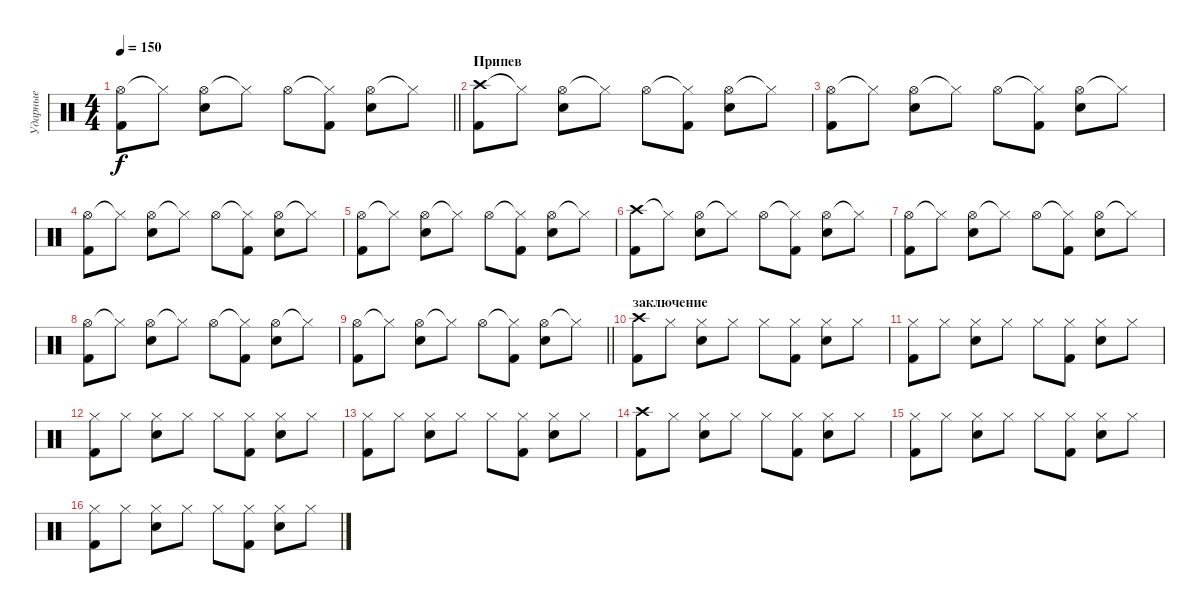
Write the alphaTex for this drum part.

\track ("Ударные" "Ударные") {instrument percussion}
\staff {score}
\articulation defaults
\ts (4 4)
\tempo 150
\clef neutral
\barLineRight lightlight
\ks c
("Hi-Hat (open)" "Kick (hit) 2").8{dy f} "Hi-Hat (closed)"{t}.8 ("Hi-Hat (open)" "Snare (hit) 2").8 "Hi-Hat (closed)"{t}.8 "Hi-Hat (open)".8 ("Hi-Hat (closed)"{t} "Kick (hit) 2").8 ("Hi-Hat (open)" "Snare (hit) 2").8 "Hi-Hat (closed)"{t}.8 |
\section ("" "Припев")
("Crash high (hit)" "Kick (hit) 2").8 "Hi-Hat (closed)"{t}.8 ("Hi-Hat (open)" "Snare (hit) 2").8 "Hi-Hat (closed)"{t}.8 "Hi-Hat (open)".8 ("Hi-Hat (closed)"{t} "Kick (hit) 2").8 ("Hi-Hat (open)" "Snare (hit) 2").8 "Hi-Hat (closed)"{t}.8 |
("Hi-Hat (open)" "Kick (hit) 2").8 "Hi-Hat (closed)"{t}.8 ("Hi-Hat (open)" "Snare (hit) 2").8 "Hi-Hat (closed)"{t}.8 "Hi-Hat (open)".8 ("Hi-Hat (closed)"{t} "Kick (hit) 2").8 ("Hi-Hat (open)" "Snare (hit) 2").8 "Hi-Hat (closed)"{t}.8 |
("Hi-Hat (open)" "Kick (hit) 2").8 "Hi-Hat (closed)"{t}.8 ("Hi-Hat (open)" "Snare (hit) 2").8 "Hi-Hat (closed)"{t}.8 "Hi-Hat (open)".8 ("Hi-Hat (closed)"{t} "Kick (hit) 2").8 ("Hi-Hat (open)" "Snare (hit) 2").8 "Hi-Hat (closed)"{t}.8 |
("Hi-Hat (open)" "Kick (hit) 2").8 "Hi-Hat (closed)"{t}.8 ("Hi-Hat (open)" "Snare (hit) 2").8 "Hi-Hat (closed)"{t}.8 "Hi-Hat (open)".8 ("Hi-Hat (closed)"{t} "Kick (hit) 2").8 ("Hi-Hat (open)" "Snare (hit) 2").8 "Hi-Hat (closed)"{t}.8 |
("Crash high (hit)" "Kick (hit) 2").8 "Hi-Hat (closed)"{t}.8 ("Hi-Hat (open)" "Snare (hit) 2").8 "Hi-Hat (closed)"{t}.8 "Hi-Hat (open)".8 ("Hi-Hat (closed)"{t} "Kick (hit) 2").8 ("Hi-Hat (open)" "Snare (hit) 2").8 "Hi-Hat (closed)"{t}.8 |
("Hi-Hat (open)" "Kick (hit) 2").8 "Hi-Hat (closed)"{t}.8 ("Hi-Hat (open)" "Snare (hit) 2").8 "Hi-Hat (closed)"{t}.8 "Hi-Hat (open)".8 ("Hi-Hat (closed)"{t} "Kick (hit) 2").8 ("Hi-Hat (open)" "Snare (hit) 2").8 "Hi-Hat (closed)"{t}.8 |
("Hi-Hat (open)" "Kick (hit) 2").8 "Hi-Hat (closed)"{t}.8 ("Hi-Hat (open)" "Snare (hit) 2").8 "Hi-Hat (closed)"{t}.8 "Hi-Hat (open)".8 ("Hi-Hat (closed)"{t} "Kick (hit) 2").8 ("Hi-Hat (open)" "Snare (hit) 2").8 "Hi-Hat (closed)"{t}.8 |
\barLineRight lightlight
("Hi-Hat (open)" "Kick (hit) 2").8 "Hi-Hat (closed)"{t}.8 ("Hi-Hat (open)" "Snare (hit) 2").8 "Hi-Hat (closed)"{t}.8 "Hi-Hat (open)".8 ("Hi-Hat (closed)"{t} "Kick (hit) 2").8 ("Hi-Hat (open)" "Snare (hit) 2").8 "Hi-Hat (closed)"{t}.8 |
\section ("" "заключение")
("Crash high (hit)" "Kick (hit) 2").8 "Hi-Hat (closed)".8 ("Hi-Hat (closed)" "Snare (hit) 2").8 "Hi-Hat (closed)".8 "Hi-Hat (closed)".8 ("Hi-Hat (closed)" "Kick (hit) 2").8 ("Hi-Hat (closed)" "Snare (hit) 2").8 "Hi-Hat (closed)".8 |
("Hi-Hat (closed)" "Kick (hit) 2").8 "Hi-Hat (closed)".8 ("Hi-Hat (closed)" "Snare (hit) 2").8 "Hi-Hat (closed)".8 "Hi-Hat (closed)".8 ("Hi-Hat (closed)" "Kick (hit) 2").8 ("Hi-Hat (closed)" "Snare (hit) 2").8 "Hi-Hat (closed)".8 |
("Hi-Hat (closed)" "Kick (hit) 2").8 "Hi-Hat (closed)".8 ("Hi-Hat (closed)" "Snare (hit) 2").8 "Hi-Hat (closed)".8 "Hi-Hat (closed)".8 ("Hi-Hat (closed)" "Kick (hit) 2").8 ("Hi-Hat (closed)" "Snare (hit) 2").8 "Hi-Hat (closed)".8 |
("Hi-Hat (closed)" "Kick (hit) 2").8 "Hi-Hat (closed)".8 ("Hi-Hat (closed)" "Snare (hit) 2").8 "Hi-Hat (closed)".8 "Hi-Hat (closed)".8 ("Hi-Hat (closed)" "Kick (hit) 2").8 ("Hi-Hat (closed)" "Snare (hit) 2").8 "Hi-Hat (closed)".8 |
("Crash high (hit)" "Kick (hit) 2").8 "Hi-Hat (closed)".8 ("Hi-Hat (closed)" "Snare (hit) 2").8 "Hi-Hat (closed)".8 "Hi-Hat (closed)".8 ("Hi-Hat (closed)" "Kick (hit) 2").8 ("Hi-Hat (closed)" "Snare (hit) 2").8 "Hi-Hat (closed)".8 |
("Hi-Hat (closed)" "Kick (hit) 2").8 "Hi-Hat (closed)".8 ("Hi-Hat (closed)" "Snare (hit) 2").8 "Hi-Hat (closed)".8 "Hi-Hat (closed)".8 ("Hi-Hat (closed)" "Kick (hit) 2").8 ("Hi-Hat (closed)" "Snare (hit) 2").8 "Hi-Hat (closed)".8 |
("Hi-Hat (closed)" "Kick (hit) 2").8 "Hi-Hat (closed)".8 ("Hi-Hat (closed)" "Snare (hit) 2").8 "Hi-Hat (closed)".8 "Hi-Hat (closed)".8 ("Hi-Hat (closed)" "Kick (hit) 2").8 ("Hi-Hat (closed)" "Snare (hit) 2").8 "Hi-Hat (closed)".8
